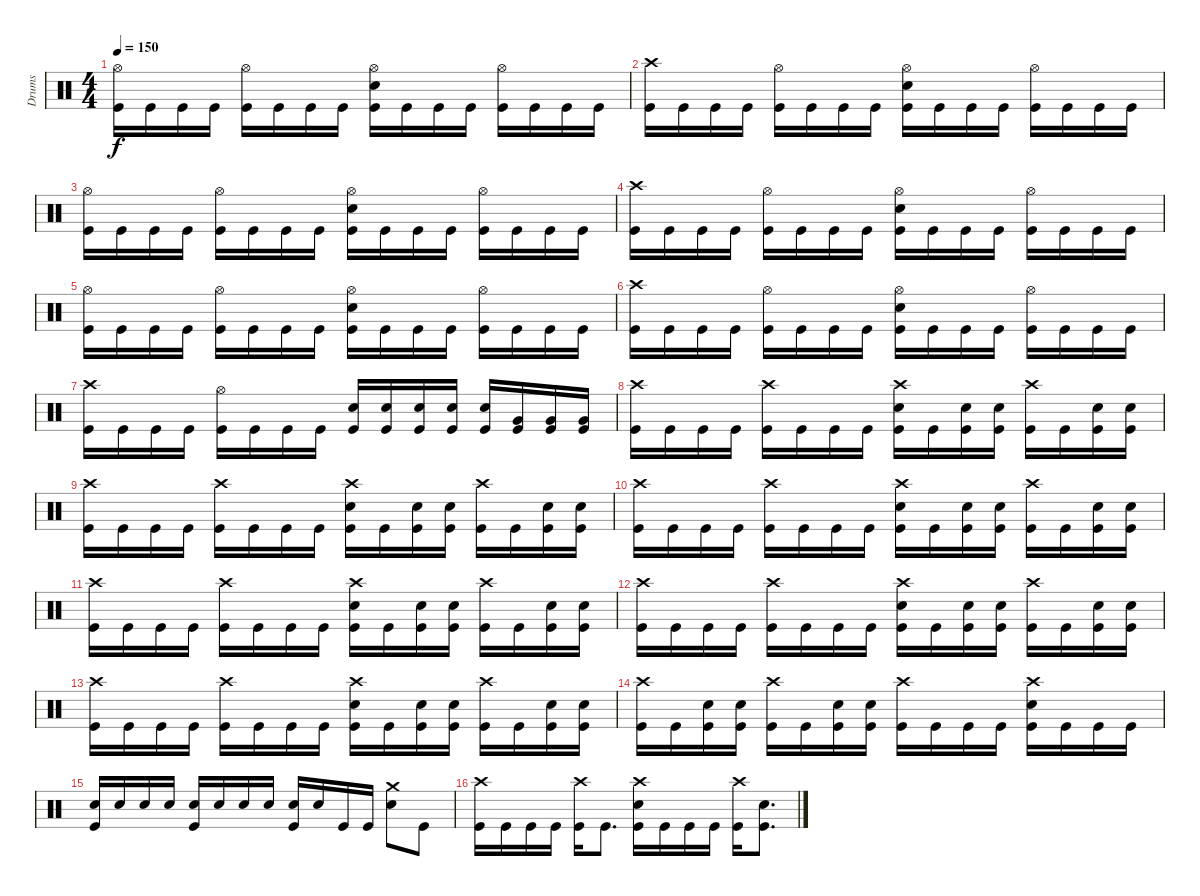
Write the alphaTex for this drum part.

\track ("Drums" "Drums") {instrument percussion}
\staff {score}
\articulation defaults
\ts (4 4)
\tempo 150
\clef neutral
\ks c
("Hi-Hat (open)" "Kick (hit)").16{dy f} "Kick (hit)".16 "Kick (hit)".16 "Kick (hit)".16 ("Hi-Hat (open)" "Kick (hit)").16 "Kick (hit)".16 "Kick (hit)".16 "Kick (hit)".16 ("Hi-Hat (open)" "Electric Snare (hit)" "Kick (hit)").16 "Kick (hit)".16 "Kick (hit)".16 "Kick (hit)".16 ("Hi-Hat (open)" "Kick (hit)").16 "Kick (hit)".16 "Kick (hit)".16 "Kick (hit)".16 |
("Crash high (hit)" "Kick (hit)").16 "Kick (hit)".16 "Kick (hit)".16 "Kick (hit)".16 ("Hi-Hat (open)" "Kick (hit)").16 "Kick (hit)".16 "Kick (hit)".16 "Kick (hit)".16 ("Hi-Hat (open)" "Electric Snare (hit)" "Kick (hit)").16 "Kick (hit)".16 "Kick (hit)".16 "Kick (hit)".16 ("Hi-Hat (open)" "Kick (hit)").16 "Kick (hit)".16 "Kick (hit)".16 "Kick (hit)".16 |
("Hi-Hat (open)" "Kick (hit)").16 "Kick (hit)".16 "Kick (hit)".16 "Kick (hit)".16 ("Hi-Hat (open)" "Kick (hit)").16 "Kick (hit)".16 "Kick (hit)".16 "Kick (hit)".16 ("Hi-Hat (open)" "Electric Snare (hit)" "Kick (hit)").16 "Kick (hit)".16 "Kick (hit)".16 "Kick (hit)".16 ("Hi-Hat (open)" "Kick (hit)").16 "Kick (hit)".16 "Kick (hit)".16 "Kick (hit)".16 |
("Crash high (hit)" "Kick (hit)").16 "Kick (hit)".16 "Kick (hit)".16 "Kick (hit)".16 ("Hi-Hat (open)" "Kick (hit)").16 "Kick (hit)".16 "Kick (hit)".16 "Kick (hit)".16 ("Hi-Hat (open)" "Electric Snare (hit)" "Kick (hit)").16 "Kick (hit)".16 "Kick (hit)".16 "Kick (hit)".16 ("Hi-Hat (open)" "Kick (hit)").16 "Kick (hit)".16 "Kick (hit)".16 "Kick (hit)".16 |
("Hi-Hat (open)" "Kick (hit)").16 "Kick (hit)".16 "Kick (hit)".16 "Kick (hit)".16 ("Hi-Hat (open)" "Kick (hit)").16 "Kick (hit)".16 "Kick (hit)".16 "Kick (hit)".16 ("Hi-Hat (open)" "Electric Snare (hit)" "Kick (hit)").16 "Kick (hit)".16 "Kick (hit)".16 "Kick (hit)".16 ("Hi-Hat (open)" "Kick (hit)").16 "Kick (hit)".16 "Kick (hit)".16 "Kick (hit)".16 |
("Crash high (hit)" "Kick (hit)").16 "Kick (hit)".16 "Kick (hit)".16 "Kick (hit)".16 ("Hi-Hat (open)" "Kick (hit)").16 "Kick (hit)".16 "Kick (hit)".16 "Kick (hit)".16 ("Hi-Hat (open)" "Electric Snare (hit)" "Kick (hit)").16 "Kick (hit)".16 "Kick (hit)".16 "Kick (hit)".16 ("Hi-Hat (open)" "Kick (hit)").16 "Kick (hit)".16 "Kick (hit)".16 "Kick (hit)".16 |
("Crash high (hit)" "Kick (hit)").16 "Kick (hit)".16 "Kick (hit)".16 "Kick (hit)".16 ("Hi-Hat (open)" "Kick (hit)").16 "Kick (hit)".16 "Kick (hit)".16 "Kick (hit)".16 ("Electric Snare (hit)" "Kick (hit)").16 ("Electric Snare (hit)" "Kick (hit)").16 ("Electric Snare (hit)" "Kick (hit)").16 ("Electric Snare (hit)" "Kick (hit)").16 ("Electric Snare (hit)" "Kick (hit)").16 ("Kick (hit)" "Very Low Tom (hit)").16 ("Kick (hit)" "Very Low Tom (hit)").16 ("Kick (hit)" "Very Low Tom (hit)").16 |
("Crash high (hit)" "Kick (hit)").16 "Kick (hit)".16 "Kick (hit)".16 "Kick (hit)".16 ("Crash high (hit)" "Kick (hit)").16 "Kick (hit)".16 "Kick (hit)".16 "Kick (hit)".16 ("Crash high (hit)" "Electric Snare (hit)" "Kick (hit)").16 "Kick (hit)".16 ("Electric Snare (hit)" "Kick (hit)").16 ("Electric Snare (hit)" "Kick (hit)").16 ("Crash high (hit)" "Kick (hit)").16 "Kick (hit)".16 ("Electric Snare (hit)" "Kick (hit)").16 ("Electric Snare (hit)" "Kick (hit)").16 |
("Crash high (hit)" "Kick (hit)").16 "Kick (hit)".16 "Kick (hit)".16 "Kick (hit)".16 ("Crash high (hit)" "Kick (hit)").16 "Kick (hit)".16 "Kick (hit)".16 "Kick (hit)".16 ("Crash high (hit)" "Electric Snare (hit)" "Kick (hit)").16 "Kick (hit)".16 ("Electric Snare (hit)" "Kick (hit)").16 ("Electric Snare (hit)" "Kick (hit)").16 ("Crash high (hit)" "Kick (hit)").16 "Kick (hit)".16 ("Electric Snare (hit)" "Kick (hit)").16 ("Electric Snare (hit)" "Kick (hit)").16 |
("Crash high (hit)" "Kick (hit)").16 "Kick (hit)".16 "Kick (hit)".16 "Kick (hit)".16 ("Crash high (hit)" "Kick (hit)").16 "Kick (hit)".16 "Kick (hit)".16 "Kick (hit)".16 ("Crash high (hit)" "Electric Snare (hit)" "Kick (hit)").16 "Kick (hit)".16 ("Electric Snare (hit)" "Kick (hit)").16 ("Electric Snare (hit)" "Kick (hit)").16 ("Crash high (hit)" "Kick (hit)").16 "Kick (hit)".16 ("Electric Snare (hit)" "Kick (hit)").16 ("Electric Snare (hit)" "Kick (hit)").16 |
("Crash high (hit)" "Kick (hit)").16 "Kick (hit)".16 "Kick (hit)".16 "Kick (hit)".16 ("Crash high (hit)" "Kick (hit)").16 "Kick (hit)".16 "Kick (hit)".16 "Kick (hit)".16 ("Crash high (hit)" "Electric Snare (hit)" "Kick (hit)").16 "Kick (hit)".16 ("Electric Snare (hit)" "Kick (hit)").16 ("Electric Snare (hit)" "Kick (hit)").16 ("Crash high (hit)" "Kick (hit)").16 "Kick (hit)".16 ("Electric Snare (hit)" "Kick (hit)").16 ("Electric Snare (hit)" "Kick (hit)").16 |
("Crash high (hit)" "Kick (hit)").16 "Kick (hit)".16 "Kick (hit)".16 "Kick (hit)".16 ("Crash high (hit)" "Kick (hit)").16 "Kick (hit)".16 "Kick (hit)".16 "Kick (hit)".16 ("Crash high (hit)" "Electric Snare (hit)" "Kick (hit)").16 "Kick (hit)".16 ("Electric Snare (hit)" "Kick (hit)").16 ("Electric Snare (hit)" "Kick (hit)").16 ("Crash high (hit)" "Kick (hit)").16 "Kick (hit)".16 ("Electric Snare (hit)" "Kick (hit)").16 ("Electric Snare (hit)" "Kick (hit)").16 |
("Crash high (hit)" "Kick (hit)").16 "Kick (hit)".16 "Kick (hit)".16 "Kick (hit)".16 ("Crash high (hit)" "Kick (hit)").16 "Kick (hit)".16 "Kick (hit)".16 "Kick (hit)".16 ("Crash high (hit)" "Electric Snare (hit)" "Kick (hit)").16 "Kick (hit)".16 ("Electric Snare (hit)" "Kick (hit)").16 ("Electric Snare (hit)" "Kick (hit)").16 ("Crash high (hit)" "Kick (hit)").16 "Kick (hit)".16 ("Electric Snare (hit)" "Kick (hit)").16 ("Electric Snare (hit)" "Kick (hit)").16 |
("Crash high (hit)" "Kick (hit)").16 "Kick (hit)".16 ("Electric Snare (hit)" "Kick (hit)").16 ("Electric Snare (hit)" "Kick (hit)").16 ("Crash high (hit)" "Kick (hit)").16 "Kick (hit)".16 ("Electric Snare (hit)" "Kick (hit)").16 ("Electric Snare (hit)" "Kick (hit)").16 ("Crash high (hit)" "Kick (hit)").16 "Kick (hit)".16 "Kick (hit)".16 "Kick (hit)".16 ("Crash high (hit)" "Electric Snare (hit)" "Kick (hit)").16 "Kick (hit)".16 "Kick (hit)".16 "Kick (hit)".16 |
("Electric Snare (hit)" "Kick (hit)").16 "Electric Snare (hit)".16 "Electric Snare (hit)".16 "Electric Snare (hit)".16 ("Electric Snare (hit)" "Kick (hit)").16 "Electric Snare (hit)".16 "Electric Snare (hit)".16 "Electric Snare (hit)".16 ("Electric Snare (hit)" "Kick (hit)").16 "Electric Snare (hit)".16 "Kick (hit)".16 "Kick (hit)".16 ("Crash medium (hit)" "Electric Snare (hit)").8 "Kick (hit)".8 |
("Crash high (hit)" "Kick (hit)").16 "Kick (hit)".16 "Kick (hit)".16 "Kick (hit)".16 ("Crash high (hit)" "Kick (hit)").16 "Kick (hit)".8{d} ("Crash high (hit)" "Electric Snare (hit)" "Kick (hit)").16 "Kick (hit)".16 "Kick (hit)".16 "Kick (hit)".16 ("Crash high (hit)" "Kick (hit)").16 ("Electric Snare (hit)" "Kick (hit)").8{d}
